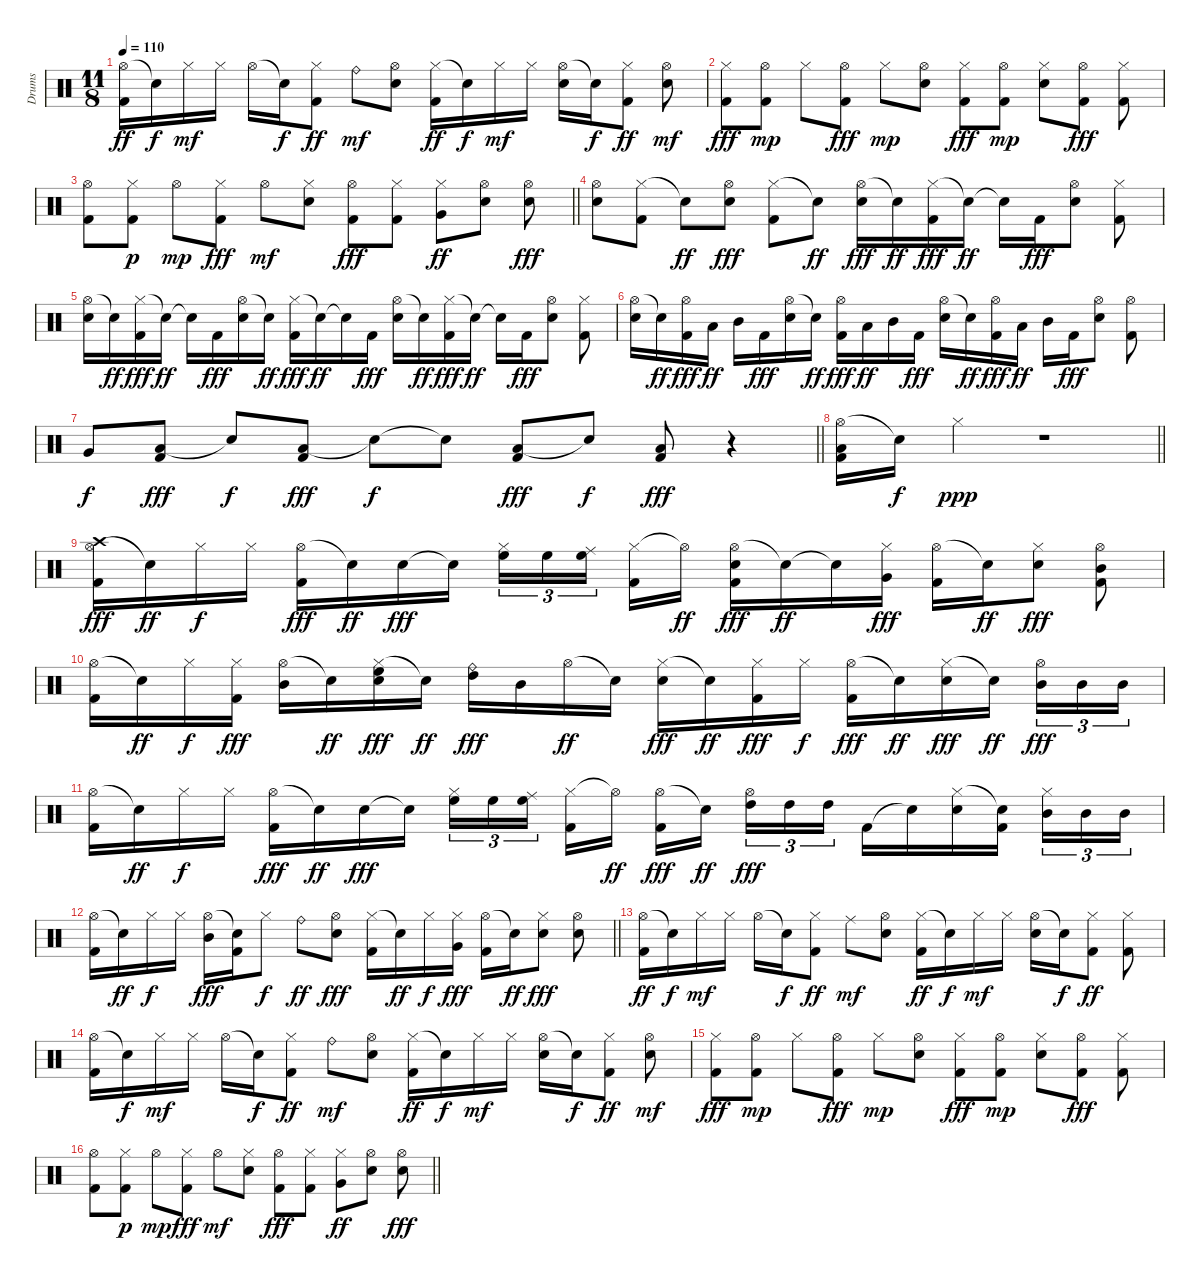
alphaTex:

\track ("Drums" "Drums") {instrument percussion}
\staff {score}
\articulation defaults
\ts (11 8)
\tempo 110
\clef neutral
\ks c
("Hi-Hat (open)" "Kick (hit) 2").16{dy ff} "Snare (hit)"{t}.16{dy f} "Hi-Hat (closed)".16{dy mf} "Hi-Hat (closed)".16 "Hi-Hat (open)".16 "Snare (hit)"{t}.16{dy f} ("Hi-Hat (closed)" "Kick (hit) 2").8{dy ff} "Ride (bell)".8{dy mf} ("Hi-Hat (open)" "Snare (hit) 2").8 ("Hi-Hat (closed)" "Kick (hit) 2").16{dy ff} "Snare (hit)"{t}.16{dy f} "Hi-Hat (closed)".16{dy mf} "Hi-Hat (closed)".16 ("Hi-Hat (open)" "Snare (hit) 2").16 "Snare (hit)"{t}.16{dy f} ("Hi-Hat (closed)" "Kick (hit) 2").8{dy ff} ("Hi-Hat (open)" "Snare (hit) 2").8{dy mf} |
("Hi-Hat (closed)" "Kick (hit) 2").8{dy fff} ("Hi-Hat (open)" "Kick (hit) 2").8{dy mp} "Hi-Hat (closed)".8 ("Hi-Hat (open)" "Kick (hit) 2").8{dy fff} "Hi-Hat (closed)".8{dy mp} ("Hi-Hat (open)" "Snare (hit) 2").8 ("Hi-Hat (closed)" "Kick (hit) 2").8{dy fff} ("Hi-Hat (open)" "Kick (hit) 2").8{dy mp} ("Hi-Hat (closed)" "Snare (hit) 2").8 ("Hi-Hat (open)" "Kick (hit) 2").8{dy fff} ("Hi-Hat (closed)" "Kick (hit) 2").8 |
\barLineRight lightlight
("Hi-Hat (open)" "Kick (hit) 2").8 ("Hi-Hat (closed)" "Kick (hit) 2").8{dy p} "Hi-Hat (open)".8{dy mp} ("Hi-Hat (closed)" "Kick (hit) 2").8{dy fff} "Hi-Hat (open)".8{dy mf} ("Hi-Hat (closed)" "Snare (hit) 2").8 ("Hi-Hat (open)" "Kick (hit) 2").8{dy fff} ("Hi-Hat (closed)" "Kick (hit) 2").8 ("Hi-Hat (closed)" "Very Low Tom (hit)").8{dy ff} ("Hi-Hat (open)" "Snare (hit) 2").8 ("Hi-Hat (open)" "Snare (hit) 2").8{dy fff} |
\section ("" "")
("Hi-Hat (open)" "Snare (hit) 2").8 ("Hi-Hat (closed)" "Kick (hit) 2").8 "Snare (hit)"{t}.8{dy ff} ("Hi-Hat (open)" "Snare (hit) 2").8{dy fff} ("Hi-Hat (closed)" "Kick (hit) 2").8 "Snare (hit)"{t}.8{dy ff} ("Hi-Hat (open)" "Snare (hit) 2").16{dy fff} "Snare (hit)"{t}.16{dy ff} ("Hi-Hat (closed)" "Kick (hit) 2").16{dy fff} "Snare (hit)"{t}.16{dy ff} "Snare (hit)"{t}.16 "Kick (hit) 2".16{dy fff} ("Hi-Hat (open)" "Snare (hit) 2").8 ("Hi-Hat (closed)" "Kick (hit) 2").8 |
("Hi-Hat (open)" "Snare (hit) 2").16 "Snare (hit)"{t}.16{dy ff} ("Hi-Hat (closed)" "Kick (hit) 2").16{dy fff} "Snare (hit)"{t}.16{dy ff} "Snare (hit)"{t}.16 "Kick (hit) 2".16{dy fff} ("Hi-Hat (open)" "Snare (hit) 2").16 "Snare (hit)"{t}.16{dy ff} ("Hi-Hat (closed)" "Kick (hit) 2").16{dy fff} "Snare (hit)"{t}.16{dy ff} "Snare (hit)"{t}.16 "Kick (hit) 2".16{dy fff} ("Hi-Hat (open)" "Snare (hit) 2").16 "Snare (hit)"{t}.16{dy ff} ("Hi-Hat (closed)" "Kick (hit) 2").16{dy fff} "Snare (hit)"{t}.16{dy ff} "Snare (hit)"{t}.16 "Kick (hit) 2".16{dy fff} ("Hi-Hat (open)" "Snare (hit) 2").8 ("Hi-Hat (closed)" "Kick (hit) 2").8 |
("Hi-Hat (open)" "Snare (hit) 2").16 "Snare (hit)"{t}.16{dy ff} ("Hi-Hat (open)" "Kick (hit) 2").16{dy fff} "Low Tom (hit)".16{dy ff} "Mid Tom (hit)".16 "Kick (hit) 2".16{dy fff} ("Hi-Hat (open)" "Snare (hit) 2").16 "Snare (hit)"{t}.16{dy ff} ("Hi-Hat (open)" "Kick (hit) 2").16{dy fff} "Low Tom (hit)".16{dy ff} "Mid Tom (hit)".16 "Kick (hit) 2".16{dy fff} ("Hi-Hat (open)" "Snare (hit) 2").16 "Snare (hit)"{t}.16{dy ff} ("Hi-Hat (open)" "Kick (hit) 2").16{dy fff} "Low Tom (hit)".16{dy ff} "Mid Tom (hit)".16 "Kick (hit) 2".16{dy fff} ("Hi-Hat (open)" "Snare (hit) 2").8 ("Hi-Hat (open)" "Kick (hit) 2").8 |
\barLineRight lightlight "Very Low Tom (hit)".8{dy f}
("Low Tom (hit)" "Kick (hit) 2").8{dy fff} "Snare (hit)"{t}.8{dy f} ("Low Tom (hit)" "Kick (hit) 2").8{dy fff} "Snare (hit)"{t}.8{dy f} "Snare (hit)"{t}.8 ("Low Tom (hit)" "Kick (hit) 2").8{dy fff} "Snare (hit)"{t}.8{dy f} ("Low Tom (hit)" "Kick (hit) 2").8{dy fff} r.4 |
\barLineRight lightlight
("Hi-Hat (open)" "Low Tom (hit)" "Kick (hit) 2").16 "Snare (hit)"{t}.16{dy f} "Hi-Hat (closed)".4{dy ppp} r.1 |
\section ("" "")
("Crash high (hit)" "Hi-Hat (open)" "Kick (hit) 2").16{dy fff} "Snare (hit)"{t}.16{dy ff} "Hi-Hat (closed)".16{dy f} "Hi-Hat (closed)".16 ("Hi-Hat (open)" "Kick (hit) 2").16{dy fff} "Snare (hit)"{t}.16{dy ff} "Snare (hit) 2".16{dy fff} "Snare (hit)"{t}.16 ("Hi-Hat (closed)" "High Floor Tom (hit)").16{tu (3 2)} "High Floor Tom (hit)".16{tu (3 2)} ("Ride (middle)" "High Floor Tom (hit)").16{tu (3 2)} ("Hi-Hat (closed)" "Kick (hit) 2").16 "Hi-Hat (open)"{t}.16{dy ff} ("Hi-Hat (open)" "Snare (hit) 2" "Kick (hit) 2").16{dy fff} "Snare (hit)"{t}.16{dy ff} "Snare (hit)"{t}.16 ("Hi-Hat (closed)" "Very Low Tom (hit)").16{dy fff} ("Hi-Hat (open)" "Kick (hit) 2").16 "Snare (hit)"{t}.16{dy ff} ("Hi-Hat (closed)" "Snare (hit) 2").8{dy fff} ("Hi-Hat (open)" "Mid Tom (hit)" "Kick (hit) 2").8 |
("Hi-Hat (open)" "Kick (hit) 2").16 "Snare (hit)"{t}.16{dy ff} "Hi-Hat (closed)".16{dy f} ("Hi-Hat (closed)" "Kick (hit) 2").16{dy fff} ("Hi-Hat (open)" "Mid Tom (hit)").16 "Snare (hit)"{t}.16{dy ff} ("Hi-Hat (closed)" "Snare (hit) 2" "High Floor Tom (hit)").16{dy fff} "Snare (hit)"{t}.16{dy ff} ("Ride (bell)" "High Tom (hit)").16{dy fff} "Mid Tom (hit)".16 "Hi-Hat (open)".16{dy ff} "Snare (hit)"{t}.16 ("Hi-Hat (closed)" "Snare (hit) 2").16{dy fff} "Snare (hit)"{t}.16{dy ff} ("Hi-Hat (closed)" "Kick (hit) 2").16{dy fff} "Hi-Hat (closed)".16{dy f} ("Hi-Hat (open)" "Kick (hit) 2").16{dy fff} "Snare (hit)"{t}.16{dy ff} ("Hi-Hat (closed)" "Snare (hit) 2").16{dy fff} "Snare (hit)"{t}.16{dy ff} ("Hi-Hat (open)" "Mid Tom (hit)").16{tu (3 2) dy fff} "Mid Tom (hit)".16{tu (3 2)} "Mid Tom (hit)".16{tu (3 2)} |
("Hi-Hat (open)" "Kick (hit) 2").16 "Snare (hit)"{t}.16{dy ff} "Hi-Hat (closed)".16{dy f} "Hi-Hat (closed)".16 ("Hi-Hat (open)" "Kick (hit) 2").16{dy fff} "Snare (hit)"{t}.16{dy ff} "Snare (hit) 2".16{dy fff} "Snare (hit)"{t}.16 ("Hi-Hat (closed)" "High Floor Tom (hit)").16{tu (3 2)} "High Floor Tom (hit)".16{tu (3 2)} ("Ride (middle)" "High Floor Tom (hit)").16{tu (3 2)} ("Hi-Hat (closed)" "Kick (hit) 2").16 "Hi-Hat (open)"{t}.16{dy ff} ("Hi-Hat (open)" "Kick (hit) 2").16{dy fff} "Snare (hit)"{t}.16{dy ff} ("Hi-Hat (open)" "High Tom (hit)").16{tu (3 2) dy fff} "High Tom (hit)".16{tu (3 2)} "High Tom (hit)".16{tu (3 2)} "Kick (hit) 2".16 "Snare (hit)"{t}.16 ("Hi-Hat (closed)" "Snare (hit) 2").16 ("Snare (hit)"{t} "Kick (hit) 2").16 ("Hi-Hat (closed)" "Mid Tom (hit)").16{tu (3 2)} "Mid Tom (hit)".16{tu (3 2)} "Mid Tom (hit)".16{tu (3 2)} |
\barLineRight lightlight
("Hi-Hat (open)" "Kick (hit) 2").16 "Snare (hit)"{t}.16{dy ff} "Hi-Hat (closed)".16{dy f} "Hi-Hat (closed)".16 ("Hi-Hat (open)" "Mid Tom (hit)").16{dy fff} ("Snare (hit)"{t} "Kick (hit) 2").16 "Hi-Hat (closed)".8{dy f} "Ride (bell)".8{dy ff} ("Hi-Hat (open)" "Snare (hit) 2").8{dy fff} ("Hi-Hat (closed)" "Kick (hit) 2").16 "Snare (hit)"{t}.16{dy ff} "Hi-Hat (closed)".16{dy f} ("Hi-Hat (closed)" "Very Low Tom (hit)").16{dy fff} ("Hi-Hat (open)" "Kick (hit) 2").16 "Snare (hit)"{t}.16{dy ff} ("Hi-Hat (closed)" "Snare (hit) 2").8{dy fff} ("Hi-Hat (open)" "Snare (hit) 2").8 |
\section ("" "")
("Hi-Hat (open)" "Kick (hit) 2").16{dy ff} "Snare (hit)"{t}.16{dy f} "Hi-Hat (closed)".16{dy mf} "Hi-Hat (closed)".16 "Hi-Hat (open)".16 "Snare (hit)"{t}.16{dy f} ("Hi-Hat (closed)" "Kick (hit) 2").8{dy ff} "Ride (middle)".8{dy mf} ("Hi-Hat (open)" "Snare (hit) 2").8 ("Hi-Hat (closed)" "Kick (hit) 2").16{dy ff} "Snare (hit)"{t}.16{dy f} "Hi-Hat (closed)".16{dy mf} "Hi-Hat (closed)".16 ("Hi-Hat (open)" "Snare (hit) 2").16 "Snare (hit)"{t}.16{dy f} ("Hi-Hat (closed)" "Kick (hit) 2").8{dy ff} ("Hi-Hat (closed)" "Kick (hit) 2").8 |
("Hi-Hat (open)" "Kick (hit) 2").16 "Snare (hit)"{t}.16{dy f} "Hi-Hat (closed)".16{dy mf} "Hi-Hat (closed)".16 "Hi-Hat (open)".16 "Snare (hit)"{t}.16{dy f} ("Hi-Hat (closed)" "Kick (hit) 2").8{dy ff} "Ride (bell)".8{dy mf} ("Hi-Hat (open)" "Snare (hit) 2").8 ("Hi-Hat (closed)" "Kick (hit) 2").16{dy ff} "Snare (hit)"{t}.16{dy f} "Hi-Hat (closed)".16{dy mf} "Hi-Hat (closed)".16 ("Hi-Hat (open)" "Snare (hit) 2").16 "Snare (hit)"{t}.16{dy f} ("Hi-Hat (closed)" "Kick (hit) 2").8{dy ff} ("Hi-Hat (open)" "Snare (hit) 2").8{dy mf} |
("Hi-Hat (closed)" "Kick (hit) 2").8{dy fff} ("Hi-Hat (open)" "Kick (hit) 2").8{dy mp} "Hi-Hat (closed)".8 ("Hi-Hat (open)" "Kick (hit) 2").8{dy fff} "Hi-Hat (closed)".8{dy mp} ("Hi-Hat (open)" "Snare (hit) 2").8 ("Hi-Hat (closed)" "Kick (hit) 2").8{dy fff} ("Hi-Hat (open)" "Kick (hit) 2").8{dy mp} ("Hi-Hat (closed)" "Snare (hit) 2").8 ("Hi-Hat (open)" "Kick (hit) 2").8{dy fff} ("Hi-Hat (closed)" "Kick (hit) 2").8 |
\barLineRight lightlight
("Hi-Hat (open)" "Kick (hit) 2").8 ("Hi-Hat (closed)" "Kick (hit) 2").8{dy p} "Hi-Hat (open)".8{dy mp} ("Hi-Hat (closed)" "Kick (hit) 2").8{dy fff} "Hi-Hat (open)".8{dy mf} ("Hi-Hat (closed)" "Snare (hit) 2").8 ("Hi-Hat (open)" "Kick (hit) 2").8{dy fff} ("Hi-Hat (closed)" "Kick (hit) 2").8 ("Hi-Hat (closed)" "Very Low Tom (hit)").8{dy ff} ("Hi-Hat (open)" "Snare (hit) 2").8 ("Hi-Hat (open)" "Snare (hit) 2").8{dy fff}
